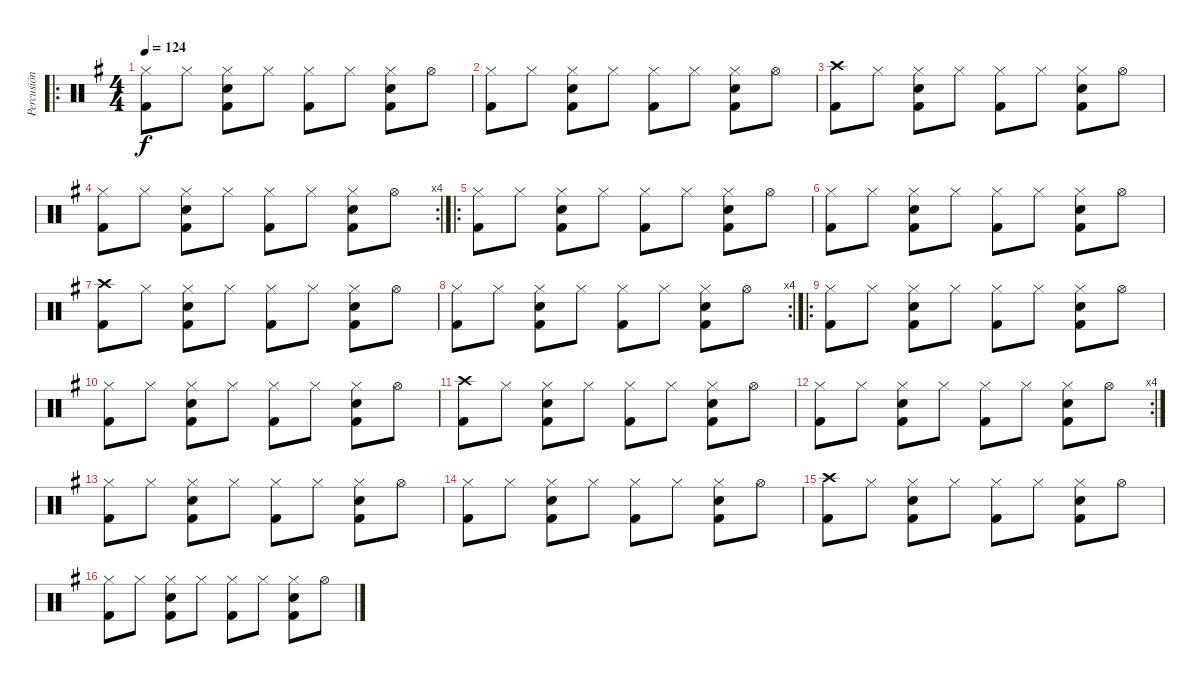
\track ("Percusión" "Percusión") {instrument percussion}
\staff {score}
\articulation defaults
\ro
\ts (4 4)
\tempo 124
\clef neutral
\ks g
("Hi-Hat (closed)" "Kick (hit) 2").8{dy f} "Hi-Hat (closed)".8 ("Hi-Hat (closed)" "Electric Snare (hit)" "Kick (hit) 2").8 "Hi-Hat (closed)".8 ("Hi-Hat (closed)" "Kick (hit) 2").8 "Hi-Hat (closed)".8 ("Hi-Hat (closed)" "Electric Snare (hit)" "Kick (hit) 2").8 "Hi-Hat (open)".8 |
("Hi-Hat (closed)" "Kick (hit) 2").8 "Hi-Hat (closed)".8 ("Hi-Hat (closed)" "Electric Snare (hit)" "Kick (hit) 2").8 "Hi-Hat (closed)".8 ("Hi-Hat (closed)" "Kick (hit) 2").8 "Hi-Hat (closed)".8 ("Hi-Hat (closed)" "Electric Snare (hit)" "Kick (hit) 2").8 "Hi-Hat (open)".8 |
("Crash high (hit)" "Kick (hit) 2").8 "Hi-Hat (closed)".8 ("Hi-Hat (closed)" "Electric Snare (hit)" "Kick (hit) 2").8 "Hi-Hat (closed)".8 ("Hi-Hat (closed)" "Kick (hit) 2").8 "Hi-Hat (closed)".8 ("Hi-Hat (closed)" "Electric Snare (hit)" "Kick (hit) 2").8 "Hi-Hat (open)".8 |
\rc 4
("Hi-Hat (closed)" "Kick (hit) 2").8 "Hi-Hat (closed)".8 ("Hi-Hat (closed)" "Electric Snare (hit)" "Kick (hit) 2").8 "Hi-Hat (closed)".8 ("Hi-Hat (closed)" "Kick (hit) 2").8 "Hi-Hat (closed)".8 ("Hi-Hat (closed)" "Electric Snare (hit)" "Kick (hit) 2").8 "Hi-Hat (open)".8 |
\ro
("Hi-Hat (closed)" "Kick (hit) 2").8 "Hi-Hat (closed)".8 ("Hi-Hat (closed)" "Electric Snare (hit)" "Kick (hit) 2").8 "Hi-Hat (closed)".8 ("Hi-Hat (closed)" "Kick (hit) 2").8 "Hi-Hat (closed)".8 ("Hi-Hat (closed)" "Electric Snare (hit)" "Kick (hit) 2").8 "Hi-Hat (open)".8 |
("Hi-Hat (closed)" "Kick (hit) 2").8 "Hi-Hat (closed)".8 ("Hi-Hat (closed)" "Electric Snare (hit)" "Kick (hit) 2").8 "Hi-Hat (closed)".8 ("Hi-Hat (closed)" "Kick (hit) 2").8 "Hi-Hat (closed)".8 ("Hi-Hat (closed)" "Electric Snare (hit)" "Kick (hit) 2").8 "Hi-Hat (open)".8 |
("Crash high (hit)" "Kick (hit) 2").8 "Hi-Hat (closed)".8 ("Hi-Hat (closed)" "Electric Snare (hit)" "Kick (hit) 2").8 "Hi-Hat (closed)".8 ("Hi-Hat (closed)" "Kick (hit) 2").8 "Hi-Hat (closed)".8 ("Hi-Hat (closed)" "Electric Snare (hit)" "Kick (hit) 2").8 "Hi-Hat (open)".8 |
\rc 4
("Hi-Hat (closed)" "Kick (hit) 2").8 "Hi-Hat (closed)".8 ("Hi-Hat (closed)" "Electric Snare (hit)" "Kick (hit) 2").8 "Hi-Hat (closed)".8 ("Hi-Hat (closed)" "Kick (hit) 2").8 "Hi-Hat (closed)".8 ("Hi-Hat (closed)" "Electric Snare (hit)" "Kick (hit) 2").8 "Hi-Hat (open)".8 |
\ro
("Hi-Hat (closed)" "Kick (hit) 2").8 "Hi-Hat (closed)".8 ("Hi-Hat (closed)" "Electric Snare (hit)" "Kick (hit) 2").8 "Hi-Hat (closed)".8 ("Hi-Hat (closed)" "Kick (hit) 2").8 "Hi-Hat (closed)".8 ("Hi-Hat (closed)" "Electric Snare (hit)" "Kick (hit) 2").8 "Hi-Hat (open)".8 |
("Hi-Hat (closed)" "Kick (hit) 2").8 "Hi-Hat (closed)".8 ("Hi-Hat (closed)" "Electric Snare (hit)" "Kick (hit) 2").8 "Hi-Hat (closed)".8 ("Hi-Hat (closed)" "Kick (hit) 2").8 "Hi-Hat (closed)".8 ("Hi-Hat (closed)" "Electric Snare (hit)" "Kick (hit) 2").8 "Hi-Hat (open)".8 |
("Crash high (hit)" "Kick (hit) 2").8 "Hi-Hat (closed)".8 ("Hi-Hat (closed)" "Electric Snare (hit)" "Kick (hit) 2").8 "Hi-Hat (closed)".8 ("Hi-Hat (closed)" "Kick (hit) 2").8 "Hi-Hat (closed)".8 ("Hi-Hat (closed)" "Electric Snare (hit)" "Kick (hit) 2").8 "Hi-Hat (open)".8 |
\rc 4
("Hi-Hat (closed)" "Kick (hit) 2").8 "Hi-Hat (closed)".8 ("Hi-Hat (closed)" "Electric Snare (hit)" "Kick (hit) 2").8 "Hi-Hat (closed)".8 ("Hi-Hat (closed)" "Kick (hit) 2").8 "Hi-Hat (closed)".8 ("Hi-Hat (closed)" "Electric Snare (hit)" "Kick (hit) 2").8 "Hi-Hat (open)".8 |
("Hi-Hat (closed)" "Kick (hit) 2").8 "Hi-Hat (closed)".8 ("Hi-Hat (closed)" "Electric Snare (hit)" "Kick (hit) 2").8 "Hi-Hat (closed)".8 ("Hi-Hat (closed)" "Kick (hit) 2").8 "Hi-Hat (closed)".8 ("Hi-Hat (closed)" "Electric Snare (hit)" "Kick (hit) 2").8 "Hi-Hat (open)".8 |
("Hi-Hat (closed)" "Kick (hit) 2").8 "Hi-Hat (closed)".8 ("Hi-Hat (closed)" "Electric Snare (hit)" "Kick (hit) 2").8 "Hi-Hat (closed)".8 ("Hi-Hat (closed)" "Kick (hit) 2").8 "Hi-Hat (closed)".8 ("Hi-Hat (closed)" "Electric Snare (hit)" "Kick (hit) 2").8 "Hi-Hat (open)".8 |
("Crash high (hit)" "Kick (hit) 2").8 "Hi-Hat (closed)".8 ("Hi-Hat (closed)" "Electric Snare (hit)" "Kick (hit) 2").8 "Hi-Hat (closed)".8 ("Hi-Hat (closed)" "Kick (hit) 2").8 "Hi-Hat (closed)".8 ("Hi-Hat (closed)" "Electric Snare (hit)" "Kick (hit) 2").8 "Hi-Hat (open)".8 |
("Hi-Hat (closed)" "Kick (hit) 2").8 "Hi-Hat (closed)".8 ("Hi-Hat (closed)" "Electric Snare (hit)" "Kick (hit) 2").8 "Hi-Hat (closed)".8 ("Hi-Hat (closed)" "Kick (hit) 2").8 "Hi-Hat (closed)".8 ("Hi-Hat (closed)" "Electric Snare (hit)" "Kick (hit) 2").8 "Hi-Hat (open)".8
